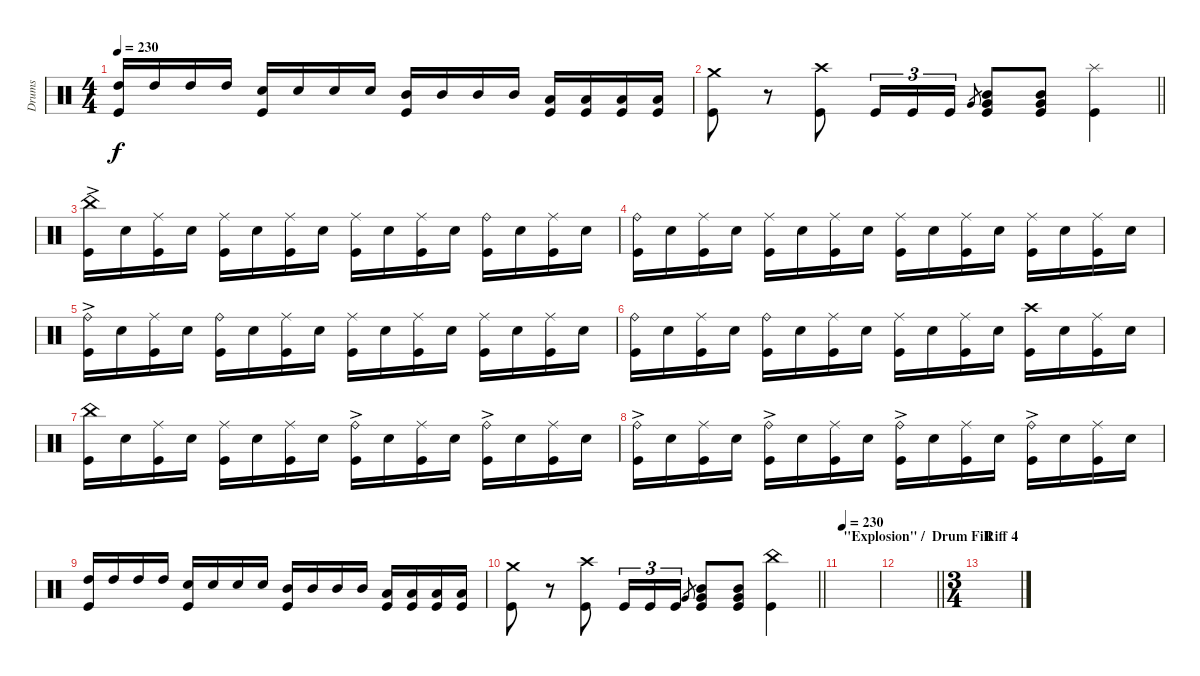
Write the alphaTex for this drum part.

\track ("Drums" "Drums") {instrument percussion}
\staff {score}
\articulation defaults
\ts (4 4)
\tempo 230
\clef neutral
\ks c
("High Tom (hit)" "Kick (hit)").16{dy f} "High Tom (hit)".16 "High Tom (hit)".16 "High Tom (hit)".16 ("Electric Snare (hit)" "Kick (hit)").16 "Electric Snare (hit)".16 "Electric Snare (hit)".16 "Electric Snare (hit)".16 ("Mid Tom (hit)" "Kick (hit)").16 "Mid Tom (hit)".16 "Mid Tom (hit)".16 "Mid Tom (hit)".16 ("Low Tom (hit)" "Kick (hit)").16 ("Low Tom (hit)" "Kick (hit)").16 ("Low Tom (hit)" "Kick (hit)").16 ("Low Tom (hit)" "Kick (hit)").16 |
\barLineRight lightlight
("Crash medium (hit)" "Kick (hit)").8 r.8 ("Crash high (hit)" "Kick (hit)").8 "Kick (hit)".16{tu (3 2)} "Kick (hit)".16{tu (3 2)} "Kick (hit)".16{tu (3 2)} "Very Low Tom (hit)".8{gr} ("Mid Tom (hit)" "Very Low Tom (hit)" "Kick (hit)").8 ("Mid Tom (hit)" "Very Low Tom (hit)" "Kick (hit)").8 ("Splash (hit)" "Kick (hit)").4 |
("China (hit)"{ac} "Kick (hit)").16 "Electric Snare (hit)".16 ("Ride (middle)" "Kick (hit)").16 "Electric Snare (hit)".16 ("Ride (middle)" "Kick (hit)").16 "Electric Snare (hit)".16 ("Ride (middle)" "Kick (hit)").16 "Electric Snare (hit)".16 ("Ride (middle)" "Kick (hit)").16 "Electric Snare (hit)".16 ("Ride (middle)" "Kick (hit)").16 "Electric Snare (hit)".16 ("Ride (bell)" "Kick (hit)").16 "Electric Snare (hit)".16 ("Ride (middle)" "Kick (hit)").16 "Electric Snare (hit)".16 |
("Ride (bell)" "Kick (hit)").16 "Electric Snare (hit)".16 ("Ride (middle)" "Kick (hit)").16 "Electric Snare (hit)".16 ("Ride (middle)" "Kick (hit)").16 "Electric Snare (hit)".16 ("Ride (middle)" "Kick (hit)").16 "Electric Snare (hit)".16 ("Ride (middle)" "Kick (hit)").16 "Electric Snare (hit)".16 ("Ride (middle)" "Kick (hit)").16 "Electric Snare (hit)".16 ("Ride (middle)" "Kick (hit)").16 "Electric Snare (hit)".16 ("Ride (middle)" "Kick (hit)").16 "Electric Snare (hit)".16 |
("Ride (bell)"{ac} "Kick (hit)").16 "Electric Snare (hit)".16 ("Ride (middle)" "Kick (hit)").16 "Electric Snare (hit)".16 ("Ride (bell)" "Kick (hit)").16 "Electric Snare (hit)".16 ("Ride (middle)" "Kick (hit)").16 "Electric Snare (hit)".16 ("Ride (middle)" "Kick (hit)").16 "Electric Snare (hit)".16 ("Ride (middle)" "Kick (hit)").16 "Electric Snare (hit)".16 ("Ride (middle)" "Kick (hit)").16 "Electric Snare (hit)".16 ("Ride (middle)" "Kick (hit)").16 "Electric Snare (hit)".16 |
("Ride (bell)" "Kick (hit)").16 "Electric Snare (hit)".16 ("Ride (middle)" "Kick (hit)").16 "Electric Snare (hit)".16 ("Ride (bell)" "Kick (hit)").16 "Electric Snare (hit)".16 ("Ride (middle)" "Kick (hit)").16 "Electric Snare (hit)".16 ("Ride (middle)" "Kick (hit)").16 "Electric Snare (hit)".16 ("Ride (middle)" "Kick (hit)").16 "Electric Snare (hit)".16 ("Crash high (hit)" "Kick (hit)").16 "Electric Snare (hit)".16 ("Ride (middle)" "Kick (hit)").16 "Electric Snare (hit)".16 |
("China (hit)" "Kick (hit)").16 "Electric Snare (hit)".16 ("Ride (middle)" "Kick (hit)").16 "Electric Snare (hit)".16 ("Ride (middle)" "Kick (hit)").16 "Electric Snare (hit)".16 ("Ride (middle)" "Kick (hit)").16 "Electric Snare (hit)".16 ("Ride (bell)"{ac} "Kick (hit)").16 "Electric Snare (hit)".16 ("Ride (middle)" "Kick (hit)").16 "Electric Snare (hit)".16 ("Ride (bell)"{ac} "Kick (hit)").16 "Electric Snare (hit)".16 ("Ride (middle)" "Kick (hit)").16 "Electric Snare (hit)".16 |
("Ride (bell)"{ac} "Kick (hit)").16 "Electric Snare (hit)".16 ("Ride (middle)" "Kick (hit)").16 "Electric Snare (hit)".16 ("Ride (bell)"{ac} "Kick (hit)").16 "Electric Snare (hit)".16 ("Ride (middle)" "Kick (hit)").16 "Electric Snare (hit)".16 ("Ride (bell)"{ac} "Kick (hit)").16 "Electric Snare (hit)".16 ("Ride (middle)" "Kick (hit)").16 "Electric Snare (hit)".16 ("Ride (bell)"{ac} "Kick (hit)").16 "Electric Snare (hit)".16 ("Ride (middle)" "Kick (hit)").16 "Electric Snare (hit)".16 |
("High Tom (hit)" "Kick (hit)").16 "High Tom (hit)".16 "High Tom (hit)".16 "High Tom (hit)".16 ("Electric Snare (hit)" "Kick (hit)").16 "Electric Snare (hit)".16 "Electric Snare (hit)".16 "Electric Snare (hit)".16 ("Mid Tom (hit)" "Kick (hit)").16 "Mid Tom (hit)".16 "Mid Tom (hit)".16 "Mid Tom (hit)".16 ("Low Tom (hit)" "Kick (hit)").16 ("Low Tom (hit)" "Kick (hit)").16 ("Low Tom (hit)" "Kick (hit)").16 ("Low Tom (hit)" "Kick (hit)").16 |
\barLineRight lightlight
("Crash medium (hit)" "Kick (hit)").8 r.8 ("Crash high (hit)" "Kick (hit)").8 "Kick (hit)".16{tu (3 2)} "Kick (hit)".16{tu (3 2)} "Kick (hit)".16{tu (3 2)} "Very Low Tom (hit)".8{gr} ("Mid Tom (hit)" "Very Low Tom (hit)" "Kick (hit)").8 ("Mid Tom (hit)" "Very Low Tom (hit)" "Kick (hit)").8 ("China (hit)" "Kick (hit)").4 |
\section ("" "\"Explosion\" /  Drum Fill")
\tempo 230
|
\barLineRight lightlight
|
\ts (3 4)
\section ("" "Riff 4")
